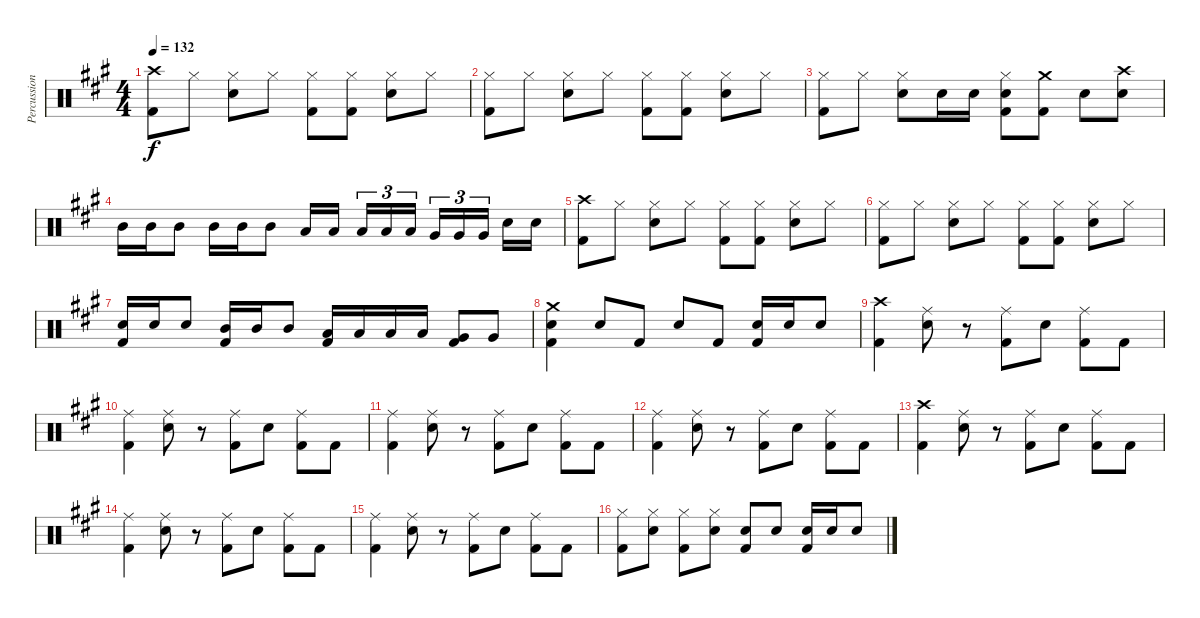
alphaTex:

\track ("Percussion" "Percussion") {instrument percussion}
\staff {score}
\articulation defaults
\ts (4 4)
\tempo 132
\clef neutral
\ks a
("Crash high (hit)" "Kick (hit) 2").8{dy f} "Hi-Hat (closed)".8 ("Hi-Hat (closed)" "Snare (hit) 2").8 "Hi-Hat (closed)".8 ("Hi-Hat (closed)" "Kick (hit) 2").8 ("Hi-Hat (closed)" "Kick (hit) 2").8 ("Hi-Hat (closed)" "Snare (hit) 2").8 "Hi-Hat (closed)".8 |
("Hi-Hat (closed)" "Kick (hit) 2").8 "Hi-Hat (closed)".8 ("Hi-Hat (closed)" "Snare (hit) 2").8 "Hi-Hat (closed)".8 ("Hi-Hat (closed)" "Kick (hit) 2").8 ("Hi-Hat (closed)" "Kick (hit) 2").8 ("Hi-Hat (closed)" "Snare (hit) 2").8 "Hi-Hat (closed)".8 |
("Hi-Hat (closed)" "Kick (hit) 2").8 "Hi-Hat (closed)".8 ("Hi-Hat (closed)" "Snare (hit) 2").8 "Snare (hit) 2".16 "Snare (hit) 2".16 ("Hi-Hat (closed)" "Snare (hit) 2" "Kick (hit) 2").8 ("Crash medium (hit)" "Kick (hit) 2").8 "Snare (hit) 2".8 ("Crash high (hit)" "Snare (hit) 2").8 |
"Mid Tom (hit)".16 "Mid Tom (hit)".16 "Mid Tom (hit)".8 "Mid Tom (hit)".16 "Mid Tom (hit)".16 "Mid Tom (hit)".8 "Low Tom (hit)".16 "Low Tom (hit)".16{beam splitsecondary} "Low Tom (hit)".16{tu (3 2)} "Low Tom (hit)".16{tu (3 2)} "Low Tom (hit)".16{tu (3 2)} "Very Low Tom (hit)".16{tu (3 2)} "Very Low Tom (hit)".16{tu (3 2)} "Very Low Tom (hit)".16{tu (3 2) beam splitsecondary} "Snare (hit) 2".16 "Snare (hit) 2".16 |
("Crash high (hit)" "Kick (hit) 2").8 "Hi-Hat (closed)".8 ("Hi-Hat (closed)" "Snare (hit) 2").8 "Hi-Hat (closed)".8 ("Hi-Hat (closed)" "Kick (hit) 2").8 ("Hi-Hat (closed)" "Kick (hit) 2").8 ("Hi-Hat (closed)" "Snare (hit) 2").8 "Hi-Hat (closed)".8 |
("Hi-Hat (closed)" "Kick (hit) 2").8 "Hi-Hat (closed)".8 ("Hi-Hat (closed)" "Snare (hit) 2").8 "Hi-Hat (closed)".8 ("Hi-Hat (closed)" "Kick (hit) 2").8 ("Hi-Hat (closed)" "Kick (hit) 2").8 ("Hi-Hat (closed)" "Snare (hit) 2").8 "Hi-Hat (closed)".8 |
("Snare (hit) 2" "Kick (hit) 2").16 "Snare (hit) 2".16 "Snare (hit) 2".8 ("Mid Tom (hit)" "Kick (hit) 2").16 "Mid Tom (hit)".16 "Mid Tom (hit)".8 ("Low Tom (hit)" "Kick (hit) 2").16 "Low Tom (hit)".16 "Low Tom (hit)".16 "Low Tom (hit)".16 ("Very Low Tom (hit)" "Kick (hit) 2").8 "Very Low Tom (hit)".8 |
("Crash medium (hit)" "Snare (hit) 2" "Kick (hit) 2").4 "Snare (hit) 2".8 "Kick (hit) 2".8 "Snare (hit) 2".8 "Kick (hit) 2".8 ("Snare (hit) 2" "Kick (hit) 2").16 "Snare (hit) 2".16 "Snare (hit) 2".8 |
("Crash high (hit)" "Kick (hit) 2").4 ("Ride (middle)" "Snare (hit) 2").8 r.8 ("Ride (middle)" "Kick (hit) 2").8 "Snare (hit) 2".8 ("Ride (middle)" "Kick (hit) 2").8 "Kick (hit) 2".8 |
("Ride (middle)" "Kick (hit) 2").4 ("Ride (middle)" "Snare (hit) 2").8 r.8 ("Ride (middle)" "Kick (hit) 2").8 "Snare (hit) 2".8 ("Ride (middle)" "Kick (hit) 2").8 "Kick (hit) 2".8 |
("Ride (middle)" "Kick (hit) 2").4 ("Ride (middle)" "Snare (hit) 2").8 r.8 ("Ride (middle)" "Kick (hit) 2").8 "Snare (hit) 2".8 ("Ride (middle)" "Kick (hit) 2").8 "Kick (hit) 2".8 |
("Ride (middle)" "Kick (hit) 2").4 ("Ride (middle)" "Snare (hit) 2").8 r.8 ("Ride (middle)" "Kick (hit) 2").8 "Snare (hit) 2".8 ("Ride (middle)" "Kick (hit) 2").8 "Kick (hit) 2".8 |
("Crash high (hit)" "Kick (hit) 2").4 ("Ride (middle)" "Snare (hit) 2").8 r.8 ("Ride (middle)" "Kick (hit) 2").8 "Snare (hit) 2".8 ("Ride (middle)" "Kick (hit) 2").8 "Kick (hit) 2".8 |
("Ride (middle)" "Kick (hit) 2").4 ("Ride (middle)" "Snare (hit) 2").8 r.8 ("Ride (middle)" "Kick (hit) 2").8 "Snare (hit) 2".8 ("Ride (middle)" "Kick (hit) 2").8 "Kick (hit) 2".8 |
("Ride (middle)" "Kick (hit) 2").4 ("Ride (middle)" "Snare (hit) 2").8 r.8 ("Ride (middle)" "Kick (hit) 2").8 "Snare (hit) 2".8 ("Ride (middle)" "Kick (hit) 2").8 "Kick (hit) 2".8 |
("Hi-Hat (closed)" "Kick (hit) 2").8 ("Hi-Hat (closed)" "Snare (hit) 2").8 ("Hi-Hat (closed)" "Kick (hit) 2").8 ("Hi-Hat (closed)" "Snare (hit) 2").8 ("Snare (hit) 2" "Kick (hit) 2").8 "Snare (hit) 2".8 ("Snare (hit) 2" "Kick (hit) 2").16 "Snare (hit) 2".16 "Snare (hit) 2".8
